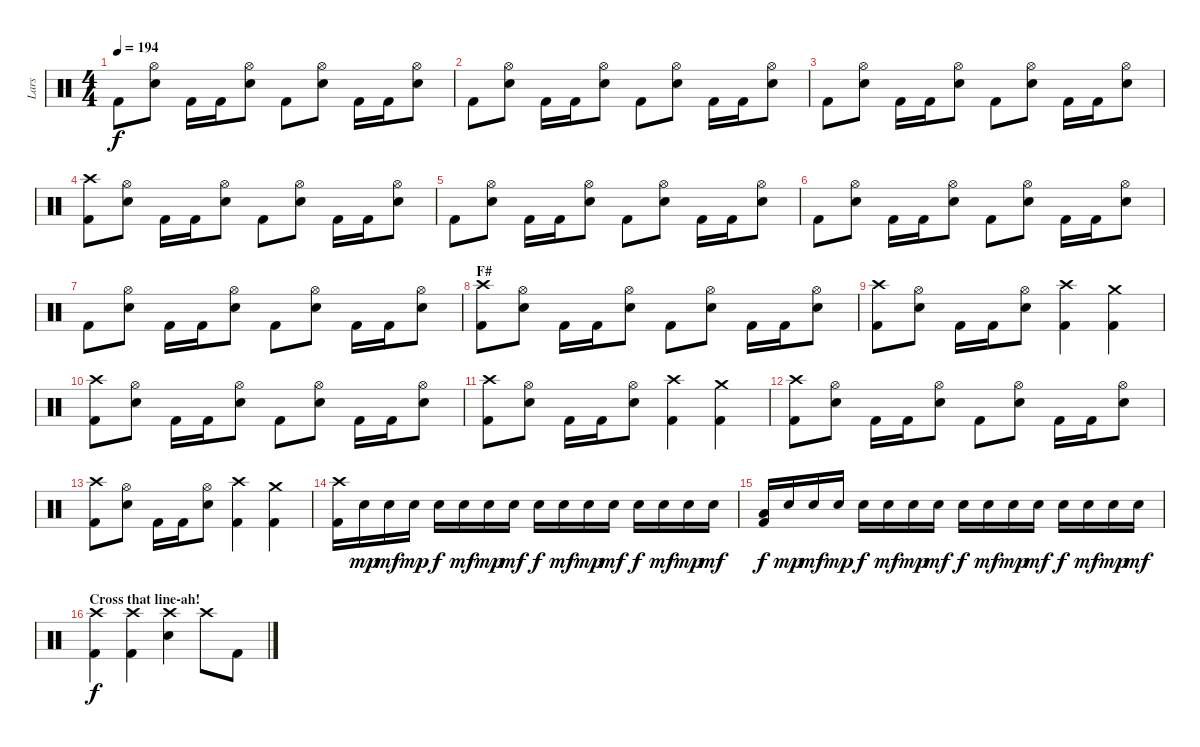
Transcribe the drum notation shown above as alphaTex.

\track ("Lars" "Lars") {instrument percussion}
\staff {score}
\articulation defaults
\ts (4 4)
\tempo 194
\clef neutral
\ks c "Kick (hit) 2".8{dy f}
("Electric Snare (hit)" "Hi-Hat (open)").8 "Kick (hit) 2".16 "Kick (hit) 2".16 ("Electric Snare (hit)" "Hi-Hat (open)").8 "Kick (hit) 2".8 ("Electric Snare (hit)" "Hi-Hat (open)").8 "Kick (hit) 2".16 "Kick (hit) 2".16 ("Electric Snare (hit)" "Hi-Hat (open)").8 |
"Kick (hit) 2".8 ("Electric Snare (hit)" "Hi-Hat (open)").8 "Kick (hit) 2".16 "Kick (hit) 2".16 ("Electric Snare (hit)" "Hi-Hat (open)").8 "Kick (hit) 2".8 ("Electric Snare (hit)" "Hi-Hat (open)").8 "Kick (hit) 2".16 "Kick (hit) 2".16 ("Electric Snare (hit)" "Hi-Hat (open)").8 |
"Kick (hit) 2".8 ("Electric Snare (hit)" "Hi-Hat (open)").8 "Kick (hit) 2".16 "Kick (hit) 2".16 ("Electric Snare (hit)" "Hi-Hat (open)").8 "Kick (hit) 2".8 ("Electric Snare (hit)" "Hi-Hat (open)").8 "Kick (hit) 2".16 "Kick (hit) 2".16 ("Electric Snare (hit)" "Hi-Hat (open)").8 |
("Kick (hit) 2" "Crash high (hit)").8 ("Electric Snare (hit)" "Hi-Hat (open)").8 "Kick (hit) 2".16 "Kick (hit) 2".16 ("Electric Snare (hit)" "Hi-Hat (open)").8 "Kick (hit) 2".8 ("Electric Snare (hit)" "Hi-Hat (open)").8 "Kick (hit) 2".16 "Kick (hit) 2".16 ("Electric Snare (hit)" "Hi-Hat (open)").8 |
"Kick (hit) 2".8 ("Electric Snare (hit)" "Hi-Hat (open)").8 "Kick (hit) 2".16 "Kick (hit) 2".16 ("Electric Snare (hit)" "Hi-Hat (open)").8 "Kick (hit) 2".8 ("Electric Snare (hit)" "Hi-Hat (open)").8 "Kick (hit) 2".16 "Kick (hit) 2".16 ("Electric Snare (hit)" "Hi-Hat (open)").8 |
"Kick (hit) 2".8 ("Electric Snare (hit)" "Hi-Hat (open)").8 "Kick (hit) 2".16 "Kick (hit) 2".16 ("Electric Snare (hit)" "Hi-Hat (open)").8 "Kick (hit) 2".8 ("Electric Snare (hit)" "Hi-Hat (open)").8 "Kick (hit) 2".16 "Kick (hit) 2".16 ("Electric Snare (hit)" "Hi-Hat (open)").8 |
"Kick (hit) 2".8 ("Electric Snare (hit)" "Hi-Hat (open)").8 "Kick (hit) 2".16 "Kick (hit) 2".16 ("Electric Snare (hit)" "Hi-Hat (open)").8 "Kick (hit) 2".8 ("Electric Snare (hit)" "Hi-Hat (open)").8 "Kick (hit) 2".16 "Kick (hit) 2".16 ("Electric Snare (hit)" "Hi-Hat (open)").8 |
\section ("" "F#")
("Kick (hit) 2" "Crash high (hit)").8 ("Electric Snare (hit)" "Hi-Hat (open)").8 "Kick (hit) 2".16 "Kick (hit) 2".16 ("Electric Snare (hit)" "Hi-Hat (open)").8 "Kick (hit) 2".8 ("Electric Snare (hit)" "Hi-Hat (open)").8 "Kick (hit) 2".16 "Kick (hit) 2".16 ("Electric Snare (hit)" "Hi-Hat (open)").8 |
("Kick (hit) 2" "Crash high (hit)").8 ("Electric Snare (hit)" "Hi-Hat (open)").8 "Kick (hit) 2".16 "Kick (hit) 2".16 ("Electric Snare (hit)" "Hi-Hat (open)").8 ("Kick (hit) 2" "Crash high (hit)").4 ("Kick (hit) 2" "Crash medium (hit)").4 |
("Kick (hit) 2" "Crash high (hit)").8 ("Electric Snare (hit)" "Hi-Hat (open)").8 "Kick (hit) 2".16 "Kick (hit) 2".16 ("Electric Snare (hit)" "Hi-Hat (open)").8 "Kick (hit) 2".8 ("Electric Snare (hit)" "Hi-Hat (open)").8 "Kick (hit) 2".16 "Kick (hit) 2".16 ("Electric Snare (hit)" "Hi-Hat (open)").8 |
("Kick (hit) 2" "Crash high (hit)").8 ("Electric Snare (hit)" "Hi-Hat (open)").8 "Kick (hit) 2".16 "Kick (hit) 2".16 ("Electric Snare (hit)" "Hi-Hat (open)").8 ("Kick (hit) 2" "Crash high (hit)").4 ("Kick (hit) 2" "Crash medium (hit)").4 |
("Kick (hit) 2" "Crash high (hit)").8 ("Electric Snare (hit)" "Hi-Hat (open)").8 "Kick (hit) 2".16 "Kick (hit) 2".16 ("Electric Snare (hit)" "Hi-Hat (open)").8 "Kick (hit) 2".8 ("Electric Snare (hit)" "Hi-Hat (open)").8 "Kick (hit) 2".16 "Kick (hit) 2".16 ("Electric Snare (hit)" "Hi-Hat (open)").8 |
("Kick (hit) 2" "Crash high (hit)").8 ("Electric Snare (hit)" "Hi-Hat (open)").8 "Kick (hit) 2".16 "Kick (hit) 2".16 ("Electric Snare (hit)" "Hi-Hat (open)").8 ("Kick (hit) 2" "Crash high (hit)").4 ("Kick (hit) 2" "Crash medium (hit)").4 |
("Kick (hit) 2" "Crash high (hit)").16 "Electric Snare (hit)".16{dy mp} "Electric Snare (hit)".16{dy mf} "Electric Snare (hit)".16{dy mp} "Electric Snare (hit)".16{dy f} "Electric Snare (hit)".16{dy mf} "Electric Snare (hit)".16{dy mp} "Electric Snare (hit)".16{dy mf} "Electric Snare (hit)".16{dy f} "Electric Snare (hit)".16{dy mf} "Electric Snare (hit)".16{dy mp} "Electric Snare (hit)".16{dy mf} "Electric Snare (hit)".16{dy f} "Electric Snare (hit)".16{dy mf} "Electric Snare (hit)".16{dy mp} "Electric Snare (hit)".16{dy mf} |
("Low Tom (hit)" "Kick (hit) 2").16{dy f} "Electric Snare (hit)".16{dy mp} "Electric Snare (hit)".16{dy mf} "Electric Snare (hit)".16{dy mp} "Electric Snare (hit)".16{dy f} "Electric Snare (hit)".16{dy mf} "Electric Snare (hit)".16{dy mp} "Electric Snare (hit)".16{dy mf} "Electric Snare (hit)".16{dy f} "Electric Snare (hit)".16{dy mf} "Electric Snare (hit)".16{dy mp} "Electric Snare (hit)".16{dy mf} "Electric Snare (hit)".16{dy f} "Electric Snare (hit)".16{dy mf} "Electric Snare (hit)".16{dy mp} "Electric Snare (hit)".16{dy mf} |
\section ("" "Cross that line-ah!")
("Crash high (hit)" "Kick (hit) 2").4{dy f} ("Crash high (hit)" "Kick (hit) 2").4 ("Crash high (hit)" "Electric Snare (hit)").4 "Crash high (hit)".8 "Kick (hit) 2".8
